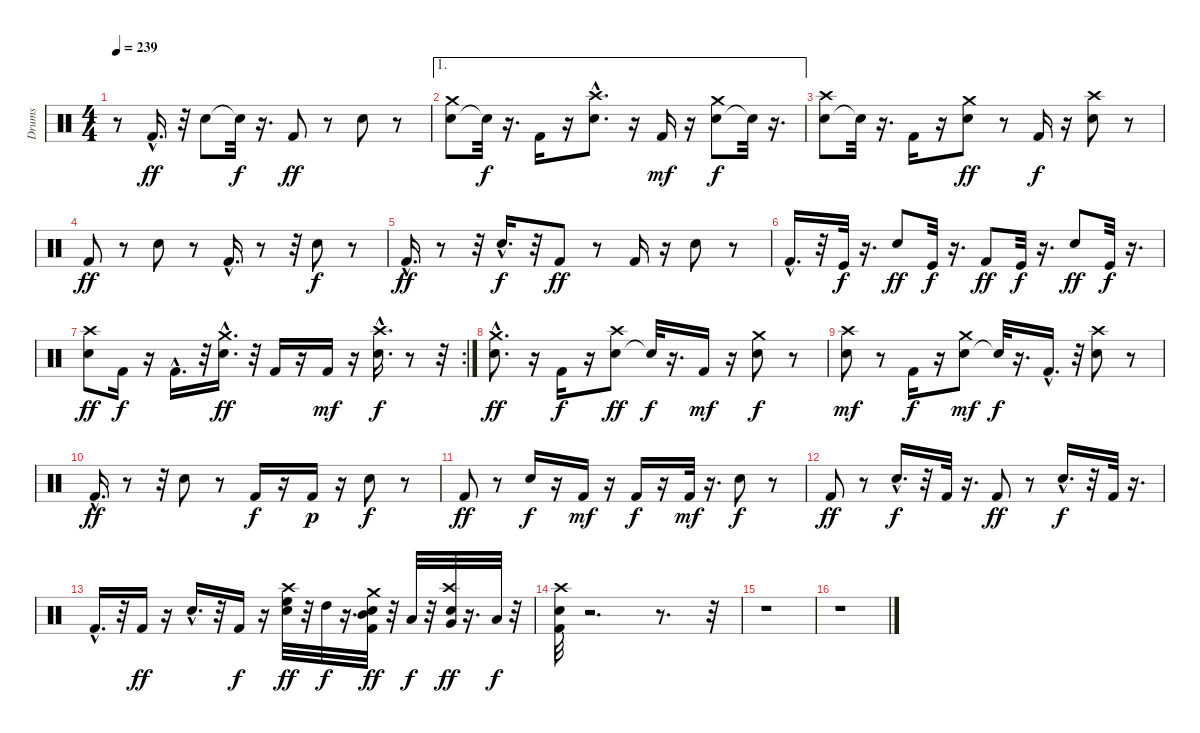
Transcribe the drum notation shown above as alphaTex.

\track ("Drums" "Drums") {instrument percussion}
\staff {score}
\articulation defaults
\ts (4 4)
\tempo 239
\clef neutral
\ks c
r.8{dy f} "Kick (hit) 2"{hac}.16{d dy ff} r.32 "Snare (hit) 2".8 "Snare (hit)"{t}.32{dy f} r.16{d} "Kick (hit) 2".8{dy ff} r.8 "Snare (hit) 2".8 r.8 |
\ae 1
("Snare (hit) 2" "Crash medium (hit)").8 "Snare (hit)"{t}.32{dy f} r.16{d} "Kick (hit) 2".16 r.16 ("Snare (hit) 2"{hac} "Crash high (hit)").8{d} r.16 "Kick (hit) 2".16{dy mf} r.16 ("Snare (hit) 2" "Crash medium (hit)").8{dy f} "Snare (hit)"{t}.32 r.16{d} |
("Snare (hit) 2" "Crash high (hit)").8 "Snare (hit)"{t}.32 r.16{d} "Kick (hit) 2".16 r.16 ("Snare (hit) 2" "Crash medium (hit)").8{dy ff} r.8 "Kick (hit) 2".16{dy f} r.16 ("Crash high (hit)" "Snare (hit) 2").8 r.8 |
"Kick (hit) 2".8{dy ff} r.8 "Snare (hit) 2".8 r.8 "Kick (hit) 2"{hac}.16{d} r.8 r.32 "Snare (hit) 2".8{dy f} r.8 |
"Kick (hit) 2"{hac}.16{d dy ff} r.8 r.32 "Snare (hit) 2"{hac}.16{d dy f} r.32 "Kick (hit) 2".8{dy ff} r.8 "Kick (hit) 2".16 r.16 "Snare (hit) 2".8 r.8 |
"Kick (hit) 2"{hac}.16{d} r.32 "Kick (hit)".32{dy f} r.16{d} "Snare (hit) 2".8{dy ff} "Kick (hit)".32{dy f} r.16{d} "Kick (hit) 2".8{dy ff} "Kick (hit)".32{dy f} r.16{d} "Snare (hit) 2".8{dy ff} "Kick (hit)".32{dy f} r.16{d} |
\rc 2
("Snare (hit) 2" "Crash high (hit)").8{dy ff} "Kick (hit) 2".16{dy f} r.16 "Kick (hit) 2"{hac}.16{d} r.32 ("Snare (hit) 2"{hac} "Crash medium (hit)").16{d dy ff} r.32 "Kick (hit) 2".16 r.16 "Kick (hit) 2".16{dy mf} r.16 ("Snare (hit) 2"{hac} "Crash high (hit)").16{d dy f} r.8 r.32 |
("Crash medium (hit)" "Snare (hit) 2"{hac}).8{d dy ff} r.16 "Kick (hit) 2".16{dy f} r.16 ("Snare (hit) 2" "Crash high (hit)").8{dy ff} "Snare (hit)"{t}.32{dy f} r.16{d} "Kick (hit) 2".16{dy mf} r.16 ("Crash medium (hit)" "Snare (hit) 2").8{dy f} r.8 |
("Crash high (hit)" "Snare (hit) 2").8{dy mf} r.8 "Kick (hit) 2".16{dy f} r.16 ("Snare (hit) 2" "Crash medium (hit)").8{dy mf} "Snare (hit)"{t}.32{dy f} r.16{d} "Kick (hit) 2"{hac}.16{d} r.32 ("Crash high (hit)" "Snare (hit) 2").8 r.8 |
"Kick (hit) 2"{hac}.16{d dy ff} r.8 r.32 "Snare (hit) 2".8 r.8 "Kick (hit) 2".16{dy f} r.16 "Kick (hit) 2".16{dy p} r.16 "Snare (hit) 2".8{dy f} r.8 |
"Kick (hit) 2".8{dy ff} r.8 "Snare (hit) 2".16{dy f} r.16 "Kick (hit) 2".16{dy mf} r.16 "Kick (hit) 2".16{dy f} r.16 "Kick (hit) 2".32{dy mf} r.16{d} "Snare (hit) 2".8{dy f} r.8 |
"Kick (hit) 2".8{dy ff} r.8 "Snare (hit) 2"{hac}.16{d dy f} r.32 "Kick (hit) 2".32 r.16{d} "Kick (hit) 2".8{dy ff} r.8 "Snare (hit) 2"{hac}.16{d dy f} r.32 "Kick (hit) 2".32 r.16{d} |
"Kick (hit) 2"{hac}.16{d} r.32 "Kick (hit) 2".16{dy ff} r.16 "Snare (hit) 2"{hac}.16{d} r.32 "Kick (hit) 2".16{dy f} r.16 ("High Floor Tom (hit)" "Snare (hit) 2" "Crash high (hit)").32{dy ff} r.32 "High Tom (hit)".32{dy f} r.16{d} ("Snare (hit) 2" "Kick (hit) 2" "Crash medium (hit)" "Mid Tom (hit)").32{dy ff} r.32 "Low Tom (hit)".32{dy f} r.32 ("Crash high (hit)" "Very Low Tom (hit)" "Snare (hit) 2").32{dy ff} r.16{d} "Low Floor Tom (hit)".32{dy f} r.32 |
("Snare (hit) 2" "Kick (hit) 2" "Crash high (hit)").32 r.2{d} r.8{d} r.32 |
r.1 |
r.1
